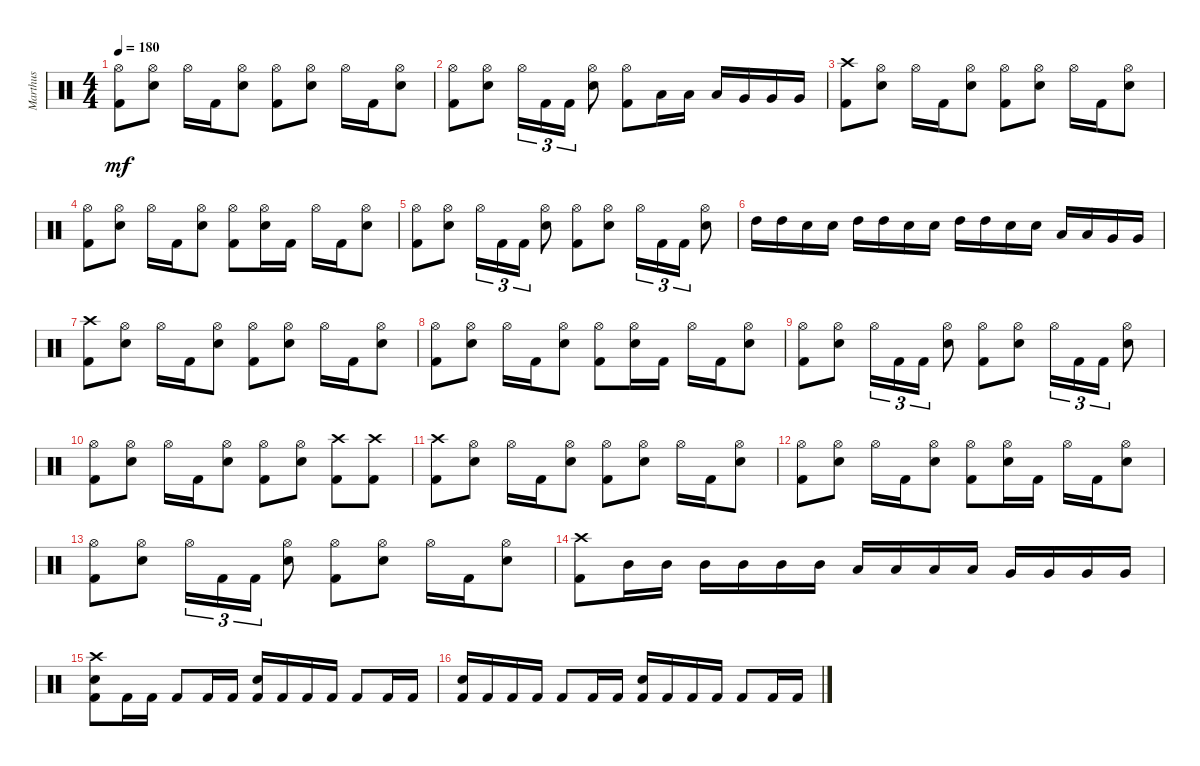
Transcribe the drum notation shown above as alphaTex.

\track ("Marthus" "Marthus") {instrument percussion}
\staff {score}
\articulation defaults
\ts (4 4)
\tempo 180
\clef neutral
\ks c
("Hi-Hat (open)" "Kick (hit) 2").8{dy mf} ("Hi-Hat (open)" "Electric Snare (hit)").8 "Hi-Hat (open)".16 "Kick (hit) 2".16 ("Hi-Hat (open)" "Electric Snare (hit)").8 ("Hi-Hat (open)" "Kick (hit) 2").8 ("Hi-Hat (open)" "Electric Snare (hit)").8 "Hi-Hat (open)".16 "Kick (hit) 2".16 ("Hi-Hat (open)" "Electric Snare (hit)").8 |
("Hi-Hat (open)" "Kick (hit) 2").8 ("Hi-Hat (open)" "Electric Snare (hit)").8 "Hi-Hat (open)".16{tu (3 2)} "Kick (hit) 2".16{tu (3 2)} "Kick (hit) 2".16{tu (3 2)} ("Hi-Hat (open)" "Electric Snare (hit)").8 ("Hi-Hat (open)" "Kick (hit) 2").8 "Low Tom (hit)".16 "Low Tom (hit)".16 "Low Tom (hit)".16 "Very Low Tom (hit)".16 "Very Low Tom (hit)".16 "Very Low Tom (hit)".16 |
("Crash high (hit)" "Kick (hit) 2").8 ("Hi-Hat (open)" "Electric Snare (hit)").8 "Hi-Hat (open)".16 "Kick (hit) 2".16 ("Hi-Hat (open)" "Electric Snare (hit)").8 ("Hi-Hat (open)" "Kick (hit) 2").8 ("Hi-Hat (open)" "Electric Snare (hit)").8 "Hi-Hat (open)".16 "Kick (hit) 2".16 ("Hi-Hat (open)" "Electric Snare (hit)").8 |
("Hi-Hat (open)" "Kick (hit) 2").8 ("Hi-Hat (open)" "Electric Snare (hit)").8 "Hi-Hat (open)".16 "Kick (hit) 2".16 ("Hi-Hat (open)" "Electric Snare (hit)").8 ("Hi-Hat (open)" "Kick (hit) 2").8 ("Hi-Hat (open)" "Electric Snare (hit)").16 "Kick (hit) 2".16 "Hi-Hat (open)".16 "Kick (hit) 2".16 ("Hi-Hat (open)" "Electric Snare (hit)").8 |
("Hi-Hat (open)" "Kick (hit) 2").8 ("Hi-Hat (open)" "Electric Snare (hit)").8 "Hi-Hat (open)".16{tu (3 2)} "Kick (hit) 2".16{tu (3 2)} "Kick (hit) 2".16{tu (3 2)} ("Hi-Hat (open)" "Electric Snare (hit)").8 ("Hi-Hat (open)" "Kick (hit) 2").8 ("Hi-Hat (open)" "Electric Snare (hit)").8 "Hi-Hat (open)".16{tu (3 2)} "Kick (hit) 2".16{tu (3 2)} "Kick (hit) 2".16{tu (3 2)} ("Hi-Hat (open)" "Electric Snare (hit)").8 |
"High Tom (hit)".16 "High Tom (hit)".16 "Electric Snare (hit)".16 "Electric Snare (hit)".16 "High Tom (hit)".16 "High Tom (hit)".16 "Electric Snare (hit)".16 "Electric Snare (hit)".16 "High Tom (hit)".16 "High Tom (hit)".16 "Electric Snare (hit)".16 "Electric Snare (hit)".16 "Low Tom (hit)".16 "Low Tom (hit)".16 "Very Low Tom (hit)".16 "Very Low Tom (hit)".16 |
("Crash high (hit)" "Kick (hit) 2").8 ("Hi-Hat (open)" "Electric Snare (hit)").8 "Hi-Hat (open)".16 "Kick (hit) 2".16 ("Hi-Hat (open)" "Electric Snare (hit)").8 ("Hi-Hat (open)" "Kick (hit) 2").8 ("Hi-Hat (open)" "Electric Snare (hit)").8 "Hi-Hat (open)".16 "Kick (hit) 2".16 ("Hi-Hat (open)" "Electric Snare (hit)").8 |
("Hi-Hat (open)" "Kick (hit) 2").8 ("Hi-Hat (open)" "Electric Snare (hit)").8 "Hi-Hat (open)".16 "Kick (hit) 2".16 ("Hi-Hat (open)" "Electric Snare (hit)").8 ("Hi-Hat (open)" "Kick (hit) 2").8 ("Hi-Hat (open)" "Electric Snare (hit)").16 "Kick (hit) 2".16 "Hi-Hat (open)".16 "Kick (hit) 2".16 ("Hi-Hat (open)" "Electric Snare (hit)").8 |
("Hi-Hat (open)" "Kick (hit) 2").8 ("Hi-Hat (open)" "Electric Snare (hit)").8 "Hi-Hat (open)".16{tu (3 2)} "Kick (hit) 2".16{tu (3 2)} "Kick (hit) 2".16{tu (3 2)} ("Hi-Hat (open)" "Electric Snare (hit)").8 ("Hi-Hat (open)" "Kick (hit) 2").8 ("Hi-Hat (open)" "Electric Snare (hit)").8 "Hi-Hat (open)".16{tu (3 2)} "Kick (hit) 2".16{tu (3 2)} "Kick (hit) 2".16{tu (3 2)} ("Hi-Hat (open)" "Electric Snare (hit)").8 |
("Hi-Hat (open)" "Kick (hit) 2").8 ("Hi-Hat (open)" "Electric Snare (hit)").8 "Hi-Hat (open)".16 "Kick (hit) 2".16 ("Hi-Hat (open)" "Electric Snare (hit)").8 ("Hi-Hat (open)" "Kick (hit) 2").8 ("Hi-Hat (open)" "Electric Snare (hit)").8 ("Crash high (hit)" "Kick (hit) 2").8 ("Crash high (hit)" "Kick (hit) 2").8 |
("Crash high (hit)" "Kick (hit) 2").8 ("Hi-Hat (open)" "Electric Snare (hit)").8 "Hi-Hat (open)".16 "Kick (hit) 2".16 ("Hi-Hat (open)" "Electric Snare (hit)").8 ("Hi-Hat (open)" "Kick (hit) 2").8 ("Hi-Hat (open)" "Electric Snare (hit)").8 "Hi-Hat (open)".16 "Kick (hit) 2".16 ("Hi-Hat (open)" "Electric Snare (hit)").8 |
("Hi-Hat (open)" "Kick (hit) 2").8 ("Hi-Hat (open)" "Electric Snare (hit)").8 "Hi-Hat (open)".16 "Kick (hit) 2".16 ("Hi-Hat (open)" "Electric Snare (hit)").8 ("Hi-Hat (open)" "Kick (hit) 2").8 ("Hi-Hat (open)" "Electric Snare (hit)").16 "Kick (hit) 2".16 "Hi-Hat (open)".16 "Kick (hit) 2".16 ("Hi-Hat (open)" "Electric Snare (hit)").8 |
("Hi-Hat (open)" "Kick (hit) 2").8 ("Hi-Hat (open)" "Electric Snare (hit)").8 "Hi-Hat (open)".16{tu (3 2)} "Kick (hit) 2".16{tu (3 2)} "Kick (hit) 2".16{tu (3 2)} ("Hi-Hat (open)" "Electric Snare (hit)").8 ("Hi-Hat (open)" "Kick (hit) 2").8 ("Hi-Hat (open)" "Electric Snare (hit)").8 "Hi-Hat (open)".16 "Kick (hit) 2".16 ("Hi-Hat (open)" "Electric Snare (hit)").8 |
("Crash high (hit)" "Kick (hit) 2").8 "Mid Tom (hit)".16 "Mid Tom (hit)".16 "Mid Tom (hit)".16 "Mid Tom (hit)".16 "Mid Tom (hit)".16 "Mid Tom (hit)".16 "Low Tom (hit)".16 "Low Tom (hit)".16 "Low Tom (hit)".16 "Low Tom (hit)".16 "Very Low Tom (hit)".16 "Very Low Tom (hit)".16 "Very Low Tom (hit)".16 "Very Low Tom (hit)".16 |
("Crash high (hit)" "Electric Snare (hit)" "Kick (hit) 2").8 "Kick (hit) 2".16 "Kick (hit) 2".16 "Kick (hit) 2".8 "Kick (hit) 2".16 "Kick (hit) 2".16 ("Electric Snare (hit)" "Kick (hit) 2").16 "Kick (hit) 2".16 "Kick (hit) 2".16 "Kick (hit) 2".16 "Kick (hit) 2".8 "Kick (hit) 2".16 "Kick (hit) 2".16 |
("Electric Snare (hit)" "Kick (hit) 2").16 "Kick (hit) 2".16 "Kick (hit) 2".16 "Kick (hit) 2".16 "Kick (hit) 2".8 "Kick (hit) 2".16 "Kick (hit) 2".16 ("Electric Snare (hit)" "Kick (hit) 2").16 "Kick (hit) 2".16 "Kick (hit) 2".16 "Kick (hit) 2".16 "Kick (hit) 2".8 "Kick (hit) 2".16 "Kick (hit) 2".16
